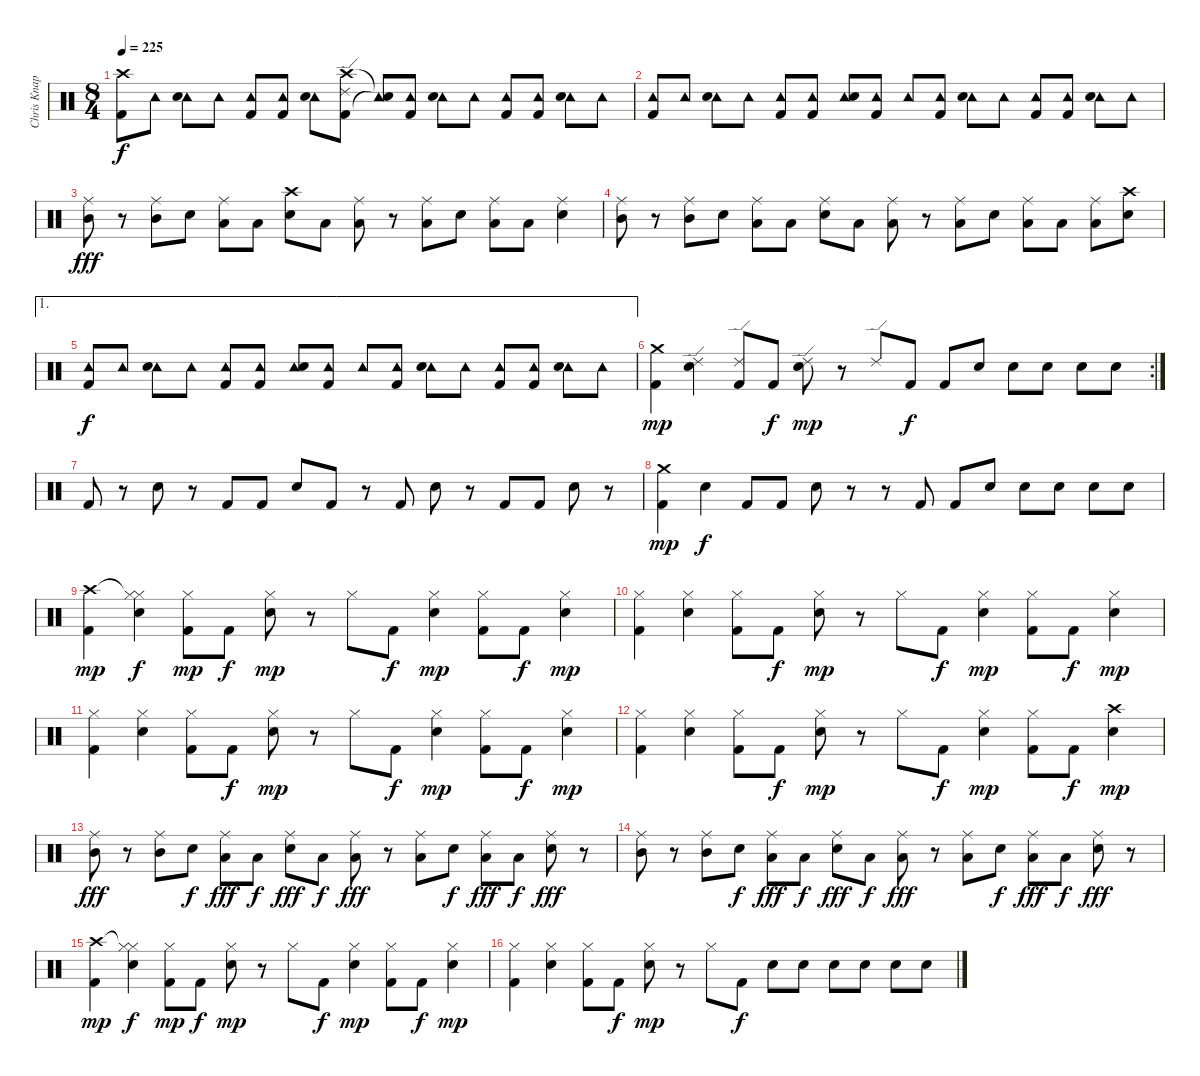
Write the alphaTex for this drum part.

\track ("Chris Knapp" "Chris Knap") {instrument percussion}
\staff {score}
\articulation defaults
\ts (8 4)
\tempo 225
\clef neutral
\ks c
("Crash high (hit)" "Kick (hit) 2").8{dy f} "Tambourine (hit)".8 ("Tambourine (hit)" "Electric Snare (hit)").8 "Tambourine (hit)".8 ("Tambourine (hit)" "Kick (hit) 2").8 ("Tambourine (hit)" "Kick (hit) 2").8 ("Tambourine (hit)" "Electric Snare (hit)").8 ("Crash high (hit)" "Kick (hit) 2" "Ride (edge) 2").8 ("Tambourine (hit)"{t} "Snare (hit)"{t}).8 ("Tambourine (hit)" "Kick (hit) 2").8 ("Tambourine (hit)" "Electric Snare (hit)").8 "Tambourine (hit)".8 ("Tambourine (hit)" "Kick (hit) 2").8 ("Tambourine (hit)" "Kick (hit) 2").8 ("Tambourine (hit)" "Electric Snare (hit)").8 "Tambourine (hit)".8 |
("Tambourine (hit)" "Kick (hit) 2").8 "Tambourine (hit)".8 ("Tambourine (hit)" "Electric Snare (hit)").8 "Tambourine (hit)".8 ("Tambourine (hit)" "Kick (hit) 2").8 ("Tambourine (hit)" "Kick (hit) 2").8 ("Tambourine (hit)" "Electric Snare (hit)").8 ("Tambourine (hit)" "Kick (hit) 2").8 "Tambourine (hit)".8 ("Tambourine (hit)" "Kick (hit) 2").8 ("Tambourine (hit)" "Electric Snare (hit)").8 "Tambourine (hit)".8 ("Tambourine (hit)" "Kick (hit) 2").8 ("Tambourine (hit)" "Kick (hit) 2").8 ("Tambourine (hit)" "Electric Snare (hit)").8 "Tambourine (hit)".8 |
("Ride (middle)" "Mid Tom (hit)").8{dy fff} r.8 ("Ride (middle)" "Mid Tom (hit)").8 "Electric Snare (hit)".8 ("Ride (middle)" "Low Floor Tom (hit)").8 "Low Floor Tom (hit)".8 ("Crash high (hit)" "Electric Snare (hit)").8 "Low Floor Tom (hit)".8 ("Ride (middle)" "Low Floor Tom (hit)").8 r.8 ("Ride (middle)" "Low Floor Tom (hit)").8 "Electric Snare (hit)".8 ("Ride (middle)" "Low Floor Tom (hit)").8 "Low Floor Tom (hit)".8 ("Ride (middle)" "Electric Snare (hit)").4 |
("Ride (middle)" "Mid Tom (hit)").8 r.8 ("Ride (middle)" "Mid Tom (hit)").8 "Electric Snare (hit)".8 ("Ride (middle)" "Low Floor Tom (hit)").8 "Low Floor Tom (hit)".8 ("Ride (middle)" "Electric Snare (hit)").8 "Low Floor Tom (hit)".8 ("Ride (middle)" "Low Floor Tom (hit)").8 r.8 ("Ride (middle)" "Low Floor Tom (hit)").8 "Electric Snare (hit)".8 ("Ride (middle)" "Low Floor Tom (hit)").8 "Low Floor Tom (hit)".8 ("Ride (middle)" "Low Floor Tom (hit)").8 ("Electric Snare (hit)" "Crash high (hit)").8 |
\ae 1
("Tambourine (hit)" "Kick (hit) 2").8{dy f} "Tambourine (hit)".8 ("Tambourine (hit)" "Electric Snare (hit)").8 "Tambourine (hit)".8 ("Tambourine (hit)" "Kick (hit) 2").8 ("Tambourine (hit)" "Kick (hit) 2").8 ("Tambourine (hit)" "Electric Snare (hit)").8 ("Tambourine (hit)" "Kick (hit) 2").8 "Tambourine (hit)".8 ("Tambourine (hit)" "Kick (hit) 2").8 ("Tambourine (hit)" "Electric Snare (hit)").8 "Tambourine (hit)".8 ("Tambourine (hit)" "Kick (hit) 2").8 ("Tambourine (hit)" "Kick (hit) 2").8 ("Tambourine (hit)" "Electric Snare (hit)").8 "Tambourine (hit)".8 |
\rc 2
("Crash medium (hit)" "Kick (hit) 2").4{dy mp} ("Ride (edge) 2" "Electric Snare (hit)").4 ("Ride (edge) 2" "Kick (hit) 2").8 "Kick (hit) 2".8{dy f} ("Ride (edge) 2" "Electric Snare (hit)").8{dy mp} r.8 "Ride (edge) 2".8 "Kick (hit) 2".8{dy f} "Kick (hit) 2".8 "Electric Snare (hit)".8 "Electric Snare (hit)".8 "Electric Snare (hit)".8 "Electric Snare (hit)".8 "Electric Snare (hit)".8 |
"Kick (hit) 2".8 r.8 "Electric Snare (hit)".8 r.8 "Kick (hit) 2".8 "Kick (hit) 2".8 "Electric Snare (hit)".8 "Kick (hit) 2".8 r.8 "Kick (hit) 2".8 "Electric Snare (hit)".8 r.8 "Kick (hit) 2".8 "Kick (hit) 2".8 "Electric Snare (hit)".8 r.8 |
("Crash medium (hit)" "Kick (hit) 2").4{dy mp} "Electric Snare (hit)".4{dy f} "Kick (hit) 2".8 "Kick (hit) 2".8 "Electric Snare (hit)".8 r.8 r.8 "Kick (hit) 2".8 "Kick (hit) 2".8 "Electric Snare (hit)".8 "Electric Snare (hit)".8 "Electric Snare (hit)".8 "Electric Snare (hit)".8 "Electric Snare (hit)".8 |
("Crash high (hit)" "Kick (hit) 2").4{dy mp} ("Hi-Hat (closed)"{t} "Electric Snare (hit)" "Hi-Hat (closed)").4{dy f} ("Hi-Hat (closed)" "Kick (hit) 2").8{dy mp} "Kick (hit) 2".8{dy f} ("Hi-Hat (closed)" "Electric Snare (hit)").8{dy mp} r.8 "Hi-Hat (closed)".8 "Kick (hit) 2".8{dy f} ("Hi-Hat (closed)" "Electric Snare (hit)").4{dy mp} ("Hi-Hat (closed)" "Kick (hit) 2").8 "Kick (hit) 2".8{dy f} ("Hi-Hat (closed)" "Electric Snare (hit)").4{dy mp} |
("Hi-Hat (closed)" "Kick (hit) 2").4 ("Hi-Hat (closed)" "Electric Snare (hit)").4 ("Hi-Hat (closed)" "Kick (hit) 2").8 "Kick (hit) 2".8{dy f} ("Hi-Hat (closed)" "Electric Snare (hit)").8{dy mp} r.8 "Hi-Hat (closed)".8 "Kick (hit) 2".8{dy f} ("Hi-Hat (closed)" "Electric Snare (hit)").4{dy mp} ("Hi-Hat (closed)" "Kick (hit) 2").8 "Kick (hit) 2".8{dy f} ("Hi-Hat (closed)" "Electric Snare (hit)").4{dy mp} |
("Hi-Hat (closed)" "Kick (hit) 2").4 ("Hi-Hat (closed)" "Electric Snare (hit)").4 ("Hi-Hat (closed)" "Kick (hit) 2").8 "Kick (hit) 2".8{dy f} ("Hi-Hat (closed)" "Electric Snare (hit)").8{dy mp} r.8 "Hi-Hat (closed)".8 "Kick (hit) 2".8{dy f} ("Hi-Hat (closed)" "Electric Snare (hit)").4{dy mp} ("Hi-Hat (closed)" "Kick (hit) 2").8 "Kick (hit) 2".8{dy f} ("Hi-Hat (closed)" "Electric Snare (hit)").4{dy mp} |
("Hi-Hat (closed)" "Kick (hit) 2").4 ("Hi-Hat (closed)" "Electric Snare (hit)").4 ("Hi-Hat (closed)" "Kick (hit) 2").8 "Kick (hit) 2".8{dy f} ("Hi-Hat (closed)" "Electric Snare (hit)").8{dy mp} r.8 "Hi-Hat (closed)".8 "Kick (hit) 2".8{dy f} ("Hi-Hat (closed)" "Electric Snare (hit)").4{dy mp} ("Hi-Hat (closed)" "Kick (hit) 2").8 "Kick (hit) 2".8{dy f} ("Crash high (hit)" "Electric Snare (hit)").4{dy mp} |
("Ride (middle)" "Mid Tom (hit)").8{dy fff} r.8 ("Ride (middle)" "Mid Tom (hit)").8 "Electric Snare (hit)".8{dy f} ("Ride (middle)" "Low Floor Tom (hit)").8{dy fff} "Low Floor Tom (hit)".8{dy f} ("Ride (middle)" "Electric Snare (hit)").8{dy fff} "Low Floor Tom (hit)".8{dy f} ("Ride (middle)" "Low Floor Tom (hit)").8{dy fff} r.8 ("Ride (middle)" "Low Floor Tom (hit)").8 "Electric Snare (hit)".8{dy f} ("Ride (middle)" "Low Floor Tom (hit)").8{dy fff} "Low Floor Tom (hit)".8{dy f} ("Ride (middle)" "Electric Snare (hit)").8{dy fff} r.8 |
("Ride (middle)" "Mid Tom (hit)").8 r.8 ("Ride (middle)" "Mid Tom (hit)").8 "Electric Snare (hit)".8{dy f} ("Ride (middle)" "Low Floor Tom (hit)").8{dy fff} "Low Floor Tom (hit)".8{dy f} ("Ride (middle)" "Electric Snare (hit)").8{dy fff} "Low Floor Tom (hit)".8{dy f} ("Ride (middle)" "Low Floor Tom (hit)").8{dy fff} r.8 ("Ride (middle)" "Low Floor Tom (hit)").8 "Electric Snare (hit)".8{dy f} ("Ride (middle)" "Low Floor Tom (hit)").8{dy fff} "Low Floor Tom (hit)".8{dy f} ("Ride (middle)" "Electric Snare (hit)").8{dy fff} r.8 |
("Crash high (hit)" "Kick (hit) 2").4{dy mp} ("Hi-Hat (closed)"{t} "Electric Snare (hit)" "Hi-Hat (closed)").4{dy f} ("Hi-Hat (closed)" "Kick (hit) 2").8{dy mp} "Kick (hit) 2".8{dy f} ("Hi-Hat (closed)" "Electric Snare (hit)").8{dy mp} r.8 "Hi-Hat (closed)".8 "Kick (hit) 2".8{dy f} ("Hi-Hat (closed)" "Electric Snare (hit)").4{dy mp} ("Hi-Hat (closed)" "Kick (hit) 2").8 "Kick (hit) 2".8{dy f} ("Hi-Hat (closed)" "Electric Snare (hit)").4{dy mp} |
("Hi-Hat (closed)" "Kick (hit) 2").4 ("Hi-Hat (closed)" "Electric Snare (hit)").4 ("Hi-Hat (closed)" "Kick (hit) 2").8 "Kick (hit) 2".8{dy f} ("Hi-Hat (closed)" "Electric Snare (hit)").8{dy mp} r.8 "Hi-Hat (closed)".8 "Kick (hit) 2".8{dy f} "Electric Snare (hit)".8 "Electric Snare (hit)".8 "Electric Snare (hit)".8 "Electric Snare (hit)".8 "Electric Snare (hit)".8 "Electric Snare (hit)".8
